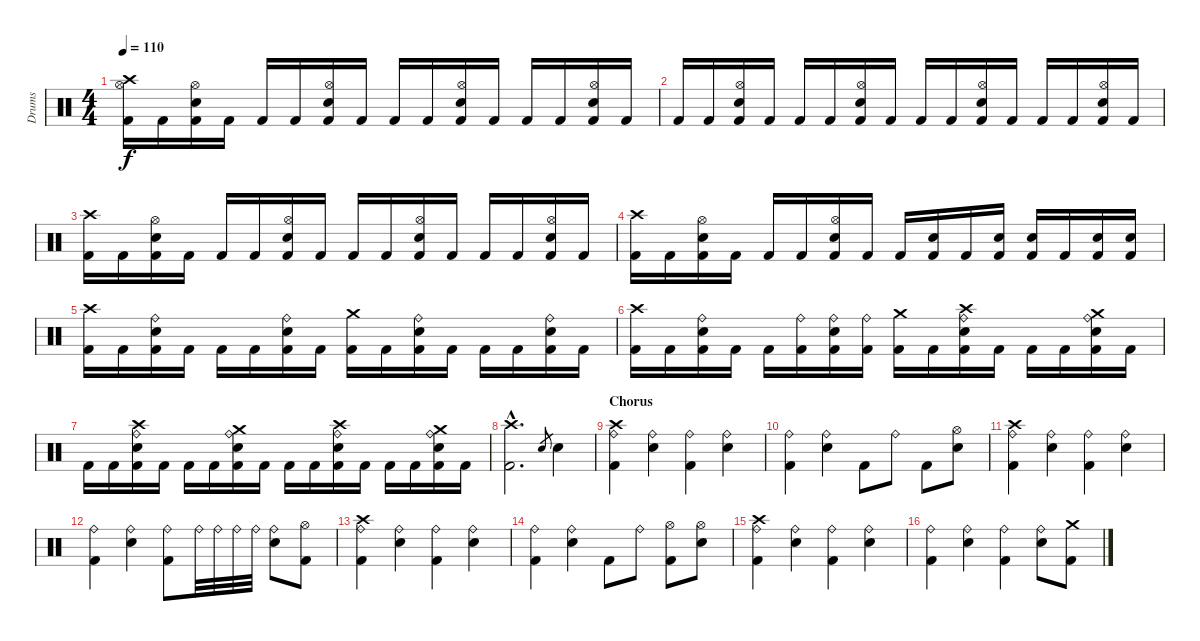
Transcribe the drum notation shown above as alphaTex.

\track ("Drums" "Drums") {instrument percussion}
\staff {score}
\articulation defaults
\ts (4 4)
\tempo 110
\clef neutral
\ks c
("Kick (hit) 2" "Hi-Hat (open)" "Crash high (hit)").16{dy f} "Kick (hit) 2".16 ("Kick (hit) 2" "Electric Snare (hit)" "Hi-Hat (open)").16 "Kick (hit) 2".16 "Kick (hit) 2".16 "Kick (hit) 2".16 ("Kick (hit) 2" "Electric Snare (hit)" "Hi-Hat (open)").16 "Kick (hit) 2".16 "Kick (hit) 2".16 "Kick (hit) 2".16 ("Kick (hit) 2" "Electric Snare (hit)" "Hi-Hat (open)").16 "Kick (hit) 2".16 "Kick (hit) 2".16 "Kick (hit) 2".16 ("Kick (hit) 2" "Electric Snare (hit)" "Hi-Hat (open)").16 "Kick (hit) 2".16 |
"Kick (hit) 2".16 "Kick (hit) 2".16 ("Kick (hit) 2" "Electric Snare (hit)" "Hi-Hat (open)").16 "Kick (hit) 2".16 "Kick (hit) 2".16 "Kick (hit) 2".16 ("Kick (hit) 2" "Electric Snare (hit)" "Hi-Hat (open)").16 "Kick (hit) 2".16 "Kick (hit) 2".16 "Kick (hit) 2".16 ("Kick (hit) 2" "Electric Snare (hit)" "Hi-Hat (open)").16 "Kick (hit) 2".16 "Kick (hit) 2".16 "Kick (hit) 2".16 ("Kick (hit) 2" "Electric Snare (hit)" "Hi-Hat (open)").16 "Kick (hit) 2".16 |
("Kick (hit) 2" "Crash high (hit)").16 "Kick (hit) 2".16 ("Kick (hit) 2" "Electric Snare (hit)" "Hi-Hat (open)").16 "Kick (hit) 2".16 "Kick (hit) 2".16 "Kick (hit) 2".16 ("Kick (hit) 2" "Electric Snare (hit)" "Hi-Hat (open)").16 "Kick (hit) 2".16 "Kick (hit) 2".16 "Kick (hit) 2".16 ("Kick (hit) 2" "Electric Snare (hit)" "Hi-Hat (open)").16 "Kick (hit) 2".16 "Kick (hit) 2".16 "Kick (hit) 2".16 ("Kick (hit) 2" "Electric Snare (hit)" "Hi-Hat (open)").16 "Kick (hit) 2".16 |
("Kick (hit) 2" "Crash high (hit)").16 "Kick (hit) 2".16 ("Kick (hit) 2" "Electric Snare (hit)" "Hi-Hat (open)").16 "Kick (hit) 2".16 "Kick (hit) 2".16 "Kick (hit) 2".16 ("Kick (hit) 2" "Electric Snare (hit)" "Hi-Hat (open)").16 "Kick (hit) 2".16 "Kick (hit) 2".16 ("Kick (hit) 2" "Electric Snare (hit)").16 "Kick (hit) 2".16 ("Kick (hit) 2" "Electric Snare (hit)").16 ("Kick (hit) 2" "Electric Snare (hit)").16 "Kick (hit) 2".16 ("Kick (hit) 2" "Electric Snare (hit)").16 ("Kick (hit) 2" "Electric Snare (hit)").16 |
("Kick (hit) 2" "Crash high (hit)").16 "Kick (hit) 2".16 ("Kick (hit) 2" "Electric Snare (hit)" "Ride (bell)").16 "Kick (hit) 2".16 "Kick (hit) 2".16 "Kick (hit) 2".16 ("Kick (hit) 2" "Electric Snare (hit)" "Ride (bell)").16 "Kick (hit) 2".16 ("Kick (hit) 2" "Crash medium (hit)").16 "Kick (hit) 2".16 ("Kick (hit) 2" "Electric Snare (hit)" "Ride (bell)").16 "Kick (hit) 2".16 "Kick (hit) 2".16 "Kick (hit) 2".16 ("Kick (hit) 2" "Electric Snare (hit)" "Ride (bell)").16 "Kick (hit) 2".16 |
("Kick (hit) 2" "Crash high (hit)").16 "Kick (hit) 2".16 ("Kick (hit) 2" "Electric Snare (hit)" "Ride (bell)").16 "Kick (hit) 2".16 "Kick (hit) 2".16 ("Kick (hit) 2" "Ride (bell)").16 ("Kick (hit) 2" "Electric Snare (hit)" "Ride (bell)").16 ("Kick (hit) 2" "Ride (bell)").16 ("Kick (hit) 2" "Crash medium (hit)").16 "Kick (hit) 2".16 ("Kick (hit) 2" "Electric Snare (hit)" "Ride (bell)" "Crash high (hit)").16 "Kick (hit) 2".16 "Kick (hit) 2".16 "Kick (hit) 2".16 ("Kick (hit) 2" "Electric Snare (hit)" "Ride (bell)" "Crash medium (hit)").16 "Kick (hit) 2".16 |
"Kick (hit) 2".16 "Kick (hit) 2".16 ("Kick (hit) 2" "Electric Snare (hit)" "Ride (bell)" "Crash high (hit)").16 "Kick (hit) 2".16 "Kick (hit) 2".16 "Kick (hit) 2".16 ("Kick (hit) 2" "Electric Snare (hit)" "Ride (bell)" "Crash medium (hit)").16 "Kick (hit) 2".16 "Kick (hit) 2".16 "Kick (hit) 2".16 ("Kick (hit) 2" "Electric Snare (hit)" "Ride (bell)" "Crash high (hit)").16 "Kick (hit) 2".16 "Kick (hit) 2".16 "Kick (hit) 2".16 ("Kick (hit) 2" "Electric Snare (hit)" "Ride (bell)" "Crash medium (hit)").16 "Kick (hit) 2".16 |
("Kick (hit) 2"{hac} "Crash high (hit)"{hac}).2{d} "Electric Snare (hit)".8{gr} "Electric Snare (hit)".4 |
\section ("" "Chorus")
("Ride (bell)" "Kick (hit) 2" "Crash high (hit)").4 ("Ride (bell)" "Electric Snare (hit)").4 ("Ride (bell)" "Kick (hit) 2").4 ("Ride (bell)" "Electric Snare (hit)").4 |
("Kick (hit) 2" "Ride (bell)").4 ("Electric Snare (hit)" "Ride (bell)").4 "Kick (hit) 2".8 "Ride (bell)".8 "Kick (hit) 2".8 ("Electric Snare (hit)" "Hi-Hat (open)").8 |
("Ride (bell)" "Kick (hit) 2" "Crash high (hit)").4 ("Ride (bell)" "Electric Snare (hit)").4 ("Ride (bell)" "Kick (hit) 2").4 ("Ride (bell)" "Electric Snare (hit)").4 |
("Ride (bell)" "Kick (hit) 2").4 ("Ride (bell)" "Electric Snare (hit)").4 ("Ride (bell)" "Kick (hit) 2").8 "Ride (bell)".32 "Ride (bell)".32 "Ride (bell)".32 "Ride (bell)".32 ("Ride (bell)" "Electric Snare (hit)").8 ("Hi-Hat (open)" "Kick (hit) 2").8 |
("Ride (bell)" "Kick (hit) 2" "Crash high (hit)").4 ("Ride (bell)" "Electric Snare (hit)").4 ("Ride (bell)" "Kick (hit) 2").4 ("Ride (bell)" "Electric Snare (hit)").4 |
("Kick (hit) 2" "Ride (bell)").4 ("Electric Snare (hit)" "Ride (bell)").4 "Kick (hit) 2".8 "Ride (bell)".8 ("Kick (hit) 2" "Hi-Hat (open)").8 ("Electric Snare (hit)" "Hi-Hat (open)").8 |
("Ride (bell)" "Kick (hit) 2" "Crash high (hit)").4 ("Ride (bell)" "Electric Snare (hit)").4 ("Ride (bell)" "Kick (hit) 2").4 ("Ride (bell)" "Electric Snare (hit)").4 |
("Ride (bell)" "Kick (hit) 2").4 ("Ride (bell)" "Electric Snare (hit)").4 ("Ride (bell)" "Kick (hit) 2").4 ("Ride (bell)" "Electric Snare (hit)").8 ("Kick (hit) 2" "Crash medium (hit)").8
